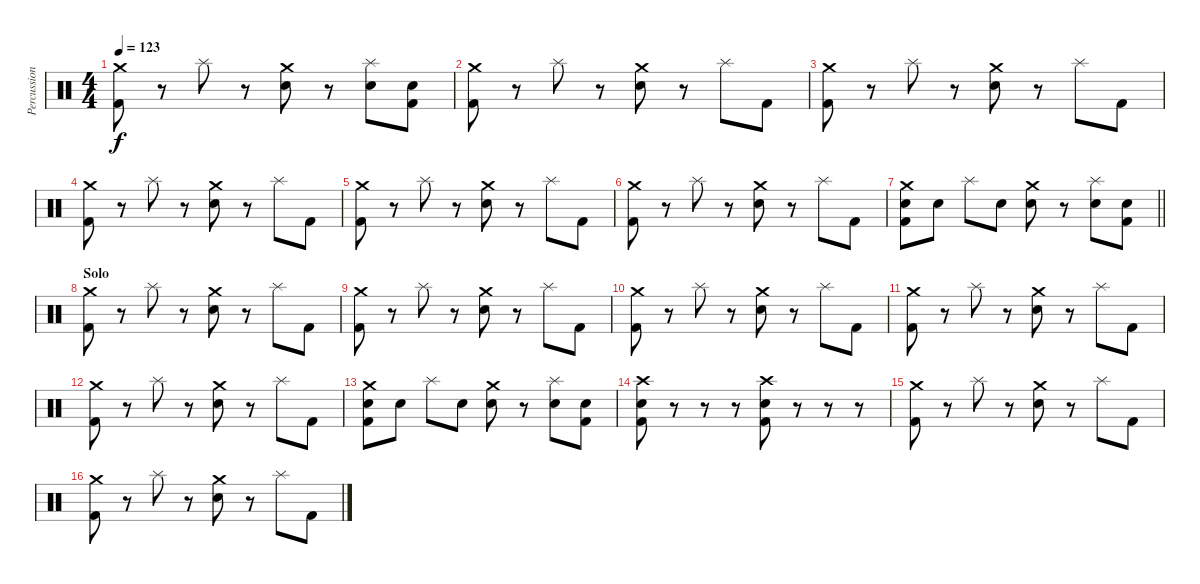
\track ("Percussion" "Percussion") {instrument percussion}
\staff {score}
\articulation defaults
\ts (4 4)
\tempo 123
\clef neutral
\ks c
("Crash medium (hit)" "Kick (hit) 2").8{dy f} r.8 "Splash (hit)".8 r.8 ("Crash medium (hit)" "Snare (hit) 2").8 r.8 ("Splash (hit)" "Snare (hit) 2").8 ("Snare (hit) 2" "Kick (hit) 2").8 |
("Crash medium (hit)" "Kick (hit) 2").8 r.8 "Splash (hit)".8 r.8 ("Crash medium (hit)" "Snare (hit) 2").8 r.8 "Splash (hit)".8 "Kick (hit) 2".8 |
("Crash medium (hit)" "Kick (hit) 2").8 r.8 "Splash (hit)".8 r.8 ("Crash medium (hit)" "Snare (hit) 2").8 r.8 "Splash (hit)".8 "Kick (hit) 2".8 |
("Crash medium (hit)" "Kick (hit) 2").8 r.8 "Splash (hit)".8 r.8 ("Crash medium (hit)" "Snare (hit) 2").8 r.8 "Splash (hit)".8 "Kick (hit) 2".8 |
("Crash medium (hit)" "Kick (hit) 2").8 r.8 "Splash (hit)".8 r.8 ("Crash medium (hit)" "Snare (hit) 2").8 r.8 "Splash (hit)".8 "Kick (hit) 2".8 |
("Crash medium (hit)" "Kick (hit) 2").8 r.8 "Splash (hit)".8 r.8 ("Crash medium (hit)" "Snare (hit) 2").8 r.8 "Splash (hit)".8 "Kick (hit) 2".8 |
\barLineRight lightlight
("Crash medium (hit)" "Snare (hit) 2" "Kick (hit) 2").8 "Snare (hit) 2".8 "Splash (hit)".8 "Snare (hit) 2".8 ("Crash medium (hit)" "Snare (hit) 2").8 r.8 ("Splash (hit)" "Snare (hit) 2").8 ("Snare (hit) 2" "Kick (hit) 2").8 |
\section ("" "Solo")
("Crash medium (hit)" "Kick (hit) 2").8 r.8 "Splash (hit)".8 r.8 ("Crash medium (hit)" "Snare (hit) 2").8 r.8 "Splash (hit)".8 "Kick (hit) 2".8 |
("Crash medium (hit)" "Kick (hit) 2").8 r.8 "Splash (hit)".8 r.8 ("Crash medium (hit)" "Snare (hit) 2").8 r.8 "Splash (hit)".8 "Kick (hit) 2".8 |
("Crash medium (hit)" "Kick (hit) 2").8 r.8 "Splash (hit)".8 r.8 ("Crash medium (hit)" "Snare (hit) 2").8 r.8 "Splash (hit)".8 "Kick (hit) 2".8 |
("Crash medium (hit)" "Kick (hit) 2").8 r.8 "Splash (hit)".8 r.8 ("Crash medium (hit)" "Snare (hit) 2").8 r.8 "Splash (hit)".8 "Kick (hit) 2".8 |
("Crash medium (hit)" "Kick (hit) 2").8 r.8 "Splash (hit)".8 r.8 ("Crash medium (hit)" "Snare (hit) 2").8 r.8 "Splash (hit)".8 "Kick (hit) 2".8 |
("Crash medium (hit)" "Snare (hit) 2" "Kick (hit) 2").8 "Snare (hit) 2".8 "Splash (hit)".8 "Snare (hit) 2".8 ("Crash medium (hit)" "Snare (hit) 2").8 r.8 ("Splash (hit)" "Snare (hit) 2").8 ("Snare (hit) 2" "Kick (hit) 2").8 |
("Crash high (hit)" "Snare (hit) 2" "Kick (hit) 2").8 r.8 r.8 r.8 ("Crash high (hit)" "Snare (hit) 2" "Kick (hit) 2").8 r.8 r.8 r.8 |
("Crash medium (hit)" "Kick (hit) 2").8 r.8 "Splash (hit)".8 r.8 ("Crash medium (hit)" "Snare (hit) 2").8 r.8 "Splash (hit)".8 "Kick (hit) 2".8 |
("Crash medium (hit)" "Kick (hit) 2").8 r.8 "Splash (hit)".8 r.8 ("Crash medium (hit)" "Snare (hit) 2").8 r.8 "Splash (hit)".8 "Kick (hit) 2".8
